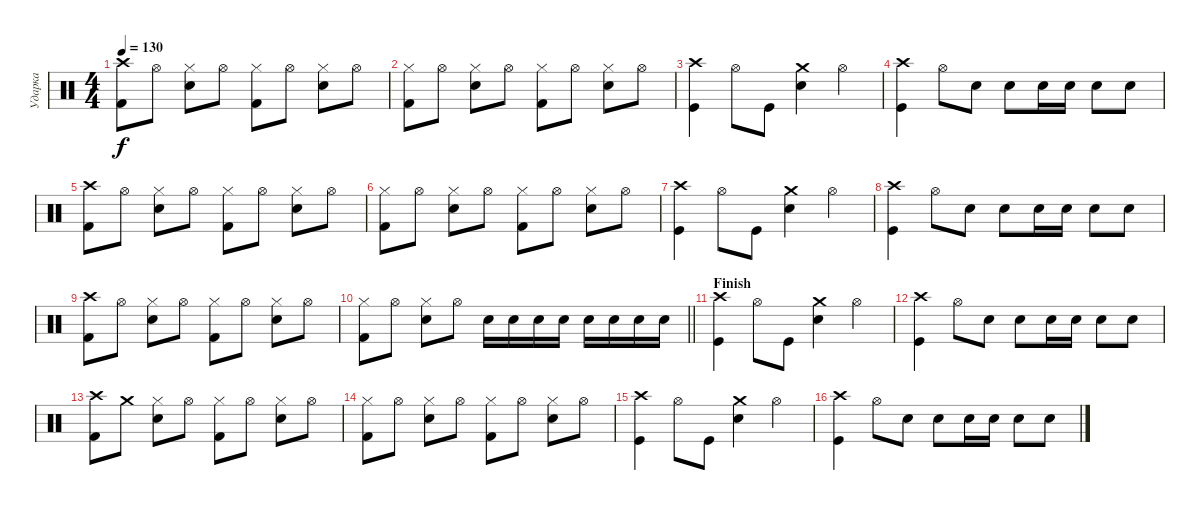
\track ("Ударка" "Ударка") {instrument percussion}
\staff {score}
\articulation defaults
\ts (4 4)
\tempo 130
\clef neutral
\ks c
("Crash high (hit)" "Kick (hit) 2").8{dy f} "Hi-Hat (open)".8 ("Hi-Hat (closed)" "Snare (hit) 2").8 "Hi-Hat (open)".8 ("Hi-Hat (closed)" "Kick (hit) 2").8 "Hi-Hat (open)".8 ("Hi-Hat (closed)" "Snare (hit) 2").8 "Hi-Hat (open)".8 |
("Hi-Hat (closed)" "Kick (hit) 2").8 "Hi-Hat (open)".8 ("Hi-Hat (closed)" "Snare (hit) 2").8 "Hi-Hat (open)".8 ("Hi-Hat (closed)" "Kick (hit) 2").8 "Hi-Hat (open)".8 ("Hi-Hat (closed)" "Snare (hit) 2").8 "Hi-Hat (open)".8 |
("Kick (hit)" "Crash high (hit)").4 "Hi-Hat (open)".8 "Kick (hit)".8 ("Snare (hit) 2" "Crash medium (hit)").4 "Hi-Hat (open)".4 |
("Kick (hit)" "Crash high (hit)").4 "Hi-Hat (open)".8 "Snare (hit) 2".8 "Snare (hit) 2".8 "Snare (hit) 2".16 "Snare (hit) 2".16 "Snare (hit) 2".8 "Snare (hit) 2".8 |
("Crash high (hit)" "Kick (hit) 2").8 "Hi-Hat (open)".8 ("Hi-Hat (closed)" "Snare (hit) 2").8 "Hi-Hat (open)".8 ("Hi-Hat (closed)" "Kick (hit) 2").8 "Hi-Hat (open)".8 ("Hi-Hat (closed)" "Snare (hit) 2").8 "Hi-Hat (open)".8 |
("Hi-Hat (closed)" "Kick (hit) 2").8 "Hi-Hat (open)".8 ("Hi-Hat (closed)" "Snare (hit) 2").8 "Hi-Hat (open)".8 ("Hi-Hat (closed)" "Kick (hit) 2").8 "Hi-Hat (open)".8 ("Hi-Hat (closed)" "Snare (hit) 2").8 "Hi-Hat (open)".8 |
("Kick (hit)" "Crash high (hit)").4 "Hi-Hat (open)".8 "Kick (hit)".8 ("Snare (hit) 2" "Crash medium (hit)").4 "Hi-Hat (open)".4 |
("Kick (hit)" "Crash high (hit)").4 "Hi-Hat (open)".8 "Snare (hit) 2".8 "Snare (hit) 2".8 "Snare (hit) 2".16 "Snare (hit) 2".16 "Snare (hit) 2".8 "Snare (hit) 2".8 |
("Crash high (hit)" "Kick (hit) 2").8 "Hi-Hat (open)".8 ("Hi-Hat (closed)" "Snare (hit) 2").8 "Hi-Hat (open)".8 ("Hi-Hat (closed)" "Kick (hit) 2").8 "Hi-Hat (open)".8 ("Hi-Hat (closed)" "Snare (hit) 2").8 "Hi-Hat (open)".8 |
\barLineRight lightlight
("Hi-Hat (closed)" "Kick (hit) 2").8 "Hi-Hat (open)".8 ("Hi-Hat (closed)" "Snare (hit) 2").8 "Hi-Hat (open)".8 "Snare (hit) 2".16 "Snare (hit) 2".16 "Snare (hit) 2".16 "Snare (hit) 2".16 "Snare (hit) 2".16 "Snare (hit) 2".16 "Snare (hit) 2".16 "Snare (hit) 2".16 |
\section ("" "Finish")
("Kick (hit)" "Crash high (hit)").4 "Hi-Hat (open)".8 "Kick (hit)".8 ("Snare (hit) 2" "Crash medium (hit)").4 "Hi-Hat (open)".4 |
("Kick (hit)" "Crash high (hit)").4 "Hi-Hat (open)".8 "Snare (hit) 2".8 "Snare (hit) 2".8 "Snare (hit) 2".16 "Snare (hit) 2".16 "Snare (hit) 2".8 "Snare (hit) 2".8 |
("Crash high (hit)" "Kick (hit) 2").8 "Crash medium (hit)".8 ("Hi-Hat (closed)" "Snare (hit) 2").8 "Hi-Hat (open)".8 ("Hi-Hat (closed)" "Kick (hit) 2").8 "Hi-Hat (open)".8 ("Hi-Hat (closed)" "Snare (hit) 2").8 "Hi-Hat (open)".8 |
("Hi-Hat (closed)" "Kick (hit) 2").8 "Hi-Hat (open)".8 ("Hi-Hat (closed)" "Snare (hit) 2").8 "Hi-Hat (open)".8 ("Hi-Hat (closed)" "Kick (hit) 2").8 "Hi-Hat (open)".8 ("Hi-Hat (closed)" "Snare (hit) 2").8 "Hi-Hat (open)".8 |
("Kick (hit)" "Crash high (hit)").4 "Hi-Hat (open)".8 "Kick (hit)".8 ("Snare (hit) 2" "Crash medium (hit)").4 "Hi-Hat (open)".4 |
("Kick (hit)" "Crash high (hit)").4 "Hi-Hat (open)".8 "Snare (hit) 2".8 "Snare (hit) 2".8 "Snare (hit) 2".16 "Snare (hit) 2".16 "Snare (hit) 2".8 "Snare (hit) 2".8
